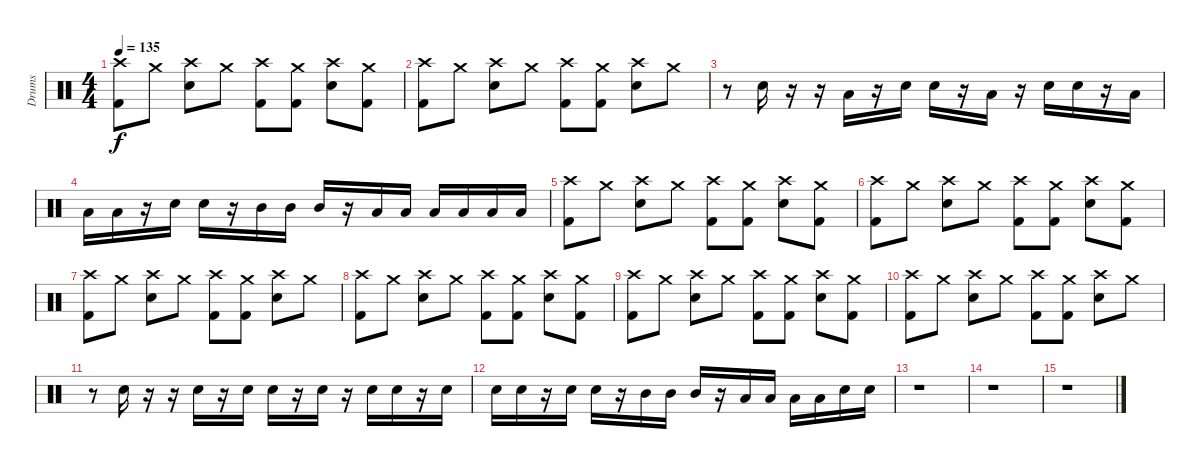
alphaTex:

\track ("Drums" "Drums") {instrument percussion}
\staff {score}
\articulation defaults
\ts (4 4)
\tempo 135
\clef neutral
\ks c
("Crash high (hit)" "Kick (hit) 2").8{dy f} "Crash medium (hit)".8 ("Crash high (hit)" "Snare (hit) 2").8 "Crash medium (hit)".8 ("Crash high (hit)" "Kick (hit) 2").8 ("Crash medium (hit)" "Kick (hit) 2").8 ("Crash high (hit)" "Snare (hit) 2").8 ("Crash medium (hit)" "Kick (hit) 2").8 |
("Crash high (hit)" "Kick (hit) 2").8 "Crash medium (hit)".8 ("Crash high (hit)" "Snare (hit) 2").8 "Crash medium (hit)".8 ("Crash high (hit)" "Kick (hit) 2").8 ("Crash medium (hit)" "Kick (hit) 2").8 ("Crash high (hit)" "Snare (hit) 2").8 "Crash medium (hit)".8 |
r.8 "Snare (hit) 2".16 r.16 r.16 "Low Tom (hit)".16 r.16 "Snare (hit) 2".16 "Snare (hit) 2".16 r.16 "Low Tom (hit)".16 r.16 "Snare (hit) 2".16 "Snare (hit) 2".16 r.16 "Low Tom (hit)".16 |
"Low Tom (hit)".16 "Low Tom (hit)".16 r.16 "Snare (hit) 2".16 "Snare (hit) 2".16 r.16 "Mid Tom (hit)".16 "Mid Tom (hit)".16 "Mid Tom (hit)".16 r.16 "Low Tom (hit)".16 "Low Tom (hit)".16 "Low Tom (hit)".16 "Low Tom (hit)".16 "Low Tom (hit)".16 "Low Tom (hit)".16 |
("Crash high (hit)" "Kick (hit) 2").8 "Crash medium (hit)".8 ("Crash high (hit)" "Snare (hit) 2").8 "Crash medium (hit)".8 ("Crash high (hit)" "Kick (hit) 2").8 ("Crash medium (hit)" "Kick (hit) 2").8 ("Crash high (hit)" "Snare (hit) 2").8 ("Crash medium (hit)" "Kick (hit) 2").8 |
("Crash high (hit)" "Kick (hit) 2").8 "Crash medium (hit)".8 ("Crash high (hit)" "Snare (hit) 2").8 "Crash medium (hit)".8 ("Crash high (hit)" "Kick (hit) 2").8 ("Crash medium (hit)" "Kick (hit) 2").8 ("Crash high (hit)" "Snare (hit) 2").8 ("Crash medium (hit)" "Kick (hit) 2").8 |
("Crash high (hit)" "Kick (hit) 2").8 "Crash medium (hit)".8 ("Crash high (hit)" "Snare (hit) 2").8 "Crash medium (hit)".8 ("Crash high (hit)" "Kick (hit) 2").8 ("Crash medium (hit)" "Kick (hit) 2").8 ("Crash high (hit)" "Snare (hit) 2").8 "Crash medium (hit)".8 |
("Crash high (hit)" "Kick (hit) 2").8 "Crash medium (hit)".8 ("Crash high (hit)" "Snare (hit) 2").8 "Crash medium (hit)".8 ("Crash high (hit)" "Kick (hit) 2").8 ("Crash medium (hit)" "Kick (hit) 2").8 ("Crash high (hit)" "Snare (hit) 2").8 ("Crash medium (hit)" "Kick (hit) 2").8 |
("Crash high (hit)" "Kick (hit) 2").8 "Crash medium (hit)".8 ("Crash high (hit)" "Snare (hit) 2").8 "Crash medium (hit)".8 ("Crash high (hit)" "Kick (hit) 2").8 ("Crash medium (hit)" "Kick (hit) 2").8 ("Crash high (hit)" "Snare (hit) 2").8 ("Crash medium (hit)" "Kick (hit) 2").8 |
("Crash high (hit)" "Kick (hit) 2").8 "Crash medium (hit)".8 ("Crash high (hit)" "Snare (hit) 2").8 "Crash medium (hit)".8 ("Crash high (hit)" "Kick (hit) 2").8 ("Crash medium (hit)" "Kick (hit) 2").8 ("Crash high (hit)" "Snare (hit) 2").8 "Crash medium (hit)".8 |
r.8 "Snare (hit) 2".16 r.16 r.16 "Snare (hit) 2".16 r.16 "Snare (hit) 2".16 "Snare (hit) 2".16 r.16 "Snare (hit) 2".16 r.16 "Snare (hit) 2".16 "Snare (hit) 2".16 r.16 "Snare (hit) 2".16 |
"Snare (hit) 2".16 "Snare (hit) 2".16 r.16 "Snare (hit) 2".16 "Snare (hit) 2".16 r.16 "Mid Tom (hit)".16 "Mid Tom (hit)".16 "Mid Tom (hit)".16 r.16 "Low Tom (hit)".16 "Low Tom (hit)".16 "Low Tom (hit)".16 "Low Tom (hit)".16 "Snare (hit) 2".16 "Snare (hit) 2".16 |
r.1 |
r.1 |
r.1
